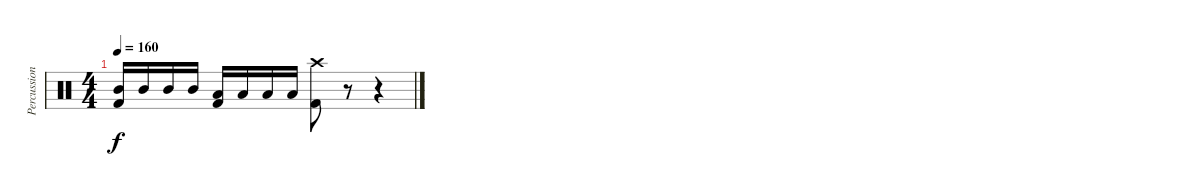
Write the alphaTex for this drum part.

\track ("Percussion" "Percussion") {instrument percussion}
\staff {score}
\articulation defaults
\ts (4 4)
\tempo 160
\clef neutral
\ks c
("Mid Tom (hit)" "Kick (hit) 2").16{dy f} "Mid Tom (hit)".16 "Mid Tom (hit)".16 "Mid Tom (hit)".16 ("Low Tom (hit)" "Kick (hit) 2").16 "Low Tom (hit)".16 "Low Tom (hit)".16 "Low Tom (hit)".16 ("Crash high (hit)" "Kick (hit) 2").8 r.8 r.4
